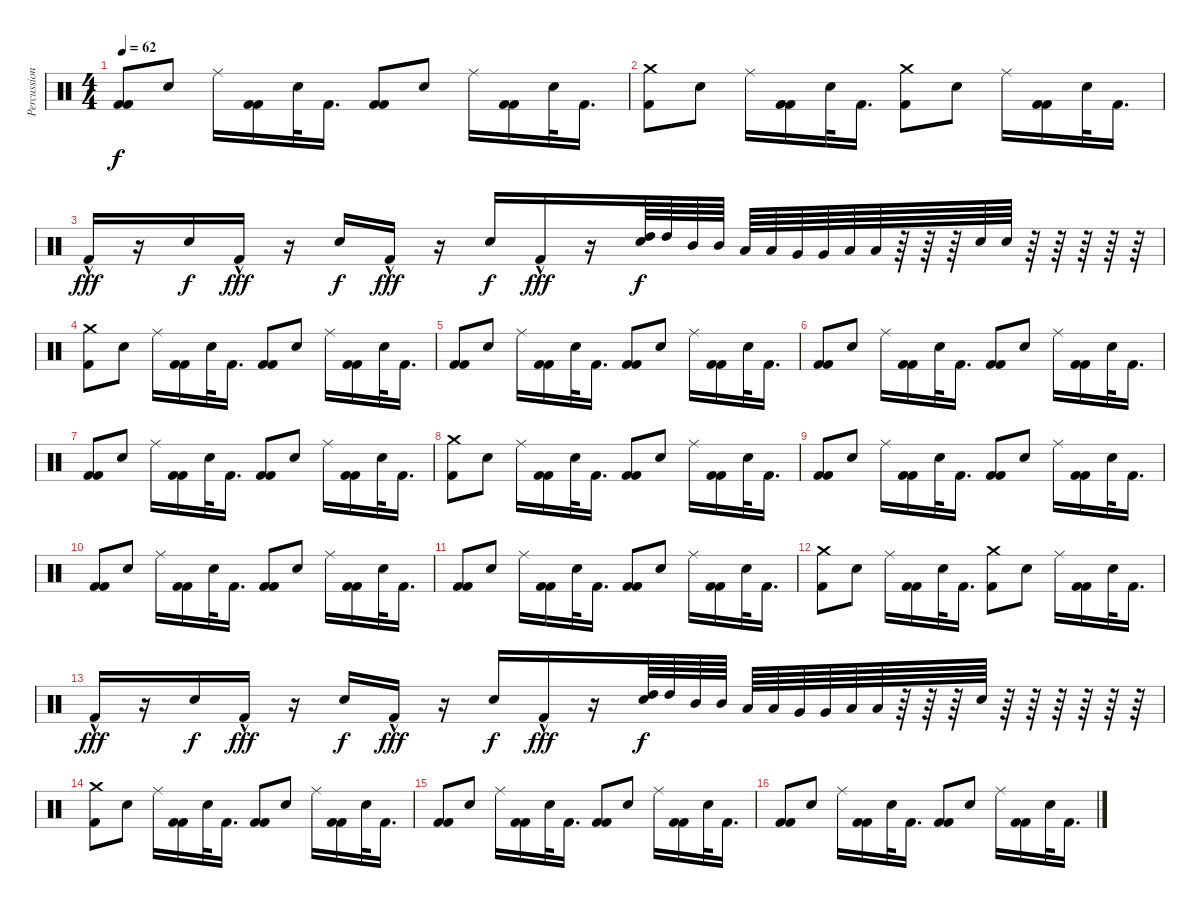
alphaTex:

\track ("Percussion" "Percussion") {instrument percussion}
\staff {score}
\articulation defaults
\ts (4 4)
\tempo 62
\clef neutral
\ks c
("Kick (hit) 2" "Kick (hit) 2").8{dy f} "Electric Snare (hit)".8 "Ride (middle)".16 ("Kick (hit) 2" "Kick (hit) 2").16 "Electric Snare (hit)".32 "Kick (hit) 2".16{d} ("Kick (hit) 2" "Kick (hit) 2").8 "Electric Snare (hit)".8 "Ride (middle)".16 ("Kick (hit) 2" "Kick (hit) 2").16 "Electric Snare (hit)".32 "Kick (hit) 2".16{d} |
("Kick (hit) 2" "Crash medium (hit)").8 "Electric Snare (hit)".8 "Ride (middle)".16 ("Kick (hit) 2" "Kick (hit) 2").16 "Electric Snare (hit)".32 "Kick (hit) 2".16{d} ("Kick (hit) 2" "Crash medium (hit)").8 "Electric Snare (hit)".8 "Ride (middle)".16 ("Kick (hit) 2" "Kick (hit) 2").16 "Electric Snare (hit)".32 "Kick (hit) 2".16{d} |
"Kick (hit) 2"{hac}.16{dy fff} r.16 "Electric Snare (hit)".16{dy f} "Kick (hit) 2"{hac}.16{dy fff} r.16 "Electric Snare (hit)".16{dy f} "Kick (hit) 2"{hac}.16{dy fff} r.16 "Electric Snare (hit)".16{dy f} "Kick (hit) 2"{hac}.16{dy fff} r.16 ("Electric Snare (hit)" "High Tom (hit)").64{dy f} "High Tom (hit)".64 "Mid Tom (hit)".64 "Mid Tom (hit)".64 "Low Tom (hit)".64 "Low Tom (hit)".64 "Very Low Tom (hit)".64 "Very Low Tom (hit)".64 "Low Floor Tom (hit)".64 "Low Floor Tom (hit)".64 r.64 r.64 r.64 "Electric Snare (hit)".64 "Electric Snare (hit)".64 r.64 r.64 r.64 r.64 r.64 |
("Kick (hit) 2" "Crash medium (hit)").8 "Electric Snare (hit)".8 "Ride (middle)".16 ("Kick (hit) 2" "Kick (hit) 2").16 "Electric Snare (hit)".32 "Kick (hit) 2".16{d} ("Kick (hit) 2" "Kick (hit) 2").8 "Electric Snare (hit)".8 "Ride (middle)".16 ("Kick (hit) 2" "Kick (hit) 2").16 "Electric Snare (hit)".32 "Kick (hit) 2".16{d} |
("Kick (hit) 2" "Kick (hit) 2").8 "Electric Snare (hit)".8 "Ride (middle)".16 ("Kick (hit) 2" "Kick (hit) 2").16 "Electric Snare (hit)".32 "Kick (hit) 2".16{d} ("Kick (hit) 2" "Kick (hit) 2").8 "Electric Snare (hit)".8 "Ride (middle)".16 ("Kick (hit) 2" "Kick (hit) 2").16 "Electric Snare (hit)".32 "Kick (hit) 2".16{d} |
("Kick (hit) 2" "Kick (hit) 2").8 "Electric Snare (hit)".8 "Ride (middle)".16 ("Kick (hit) 2" "Kick (hit) 2").16 "Electric Snare (hit)".32 "Kick (hit) 2".16{d} ("Kick (hit) 2" "Kick (hit) 2").8 "Electric Snare (hit)".8 "Ride (middle)".16 ("Kick (hit) 2" "Kick (hit) 2").16 "Electric Snare (hit)".32 "Kick (hit) 2".16{d} |
("Kick (hit) 2" "Kick (hit) 2").8 "Electric Snare (hit)".8 "Ride (middle)".16 ("Kick (hit) 2" "Kick (hit) 2").16 "Electric Snare (hit)".32 "Kick (hit) 2".16{d} ("Kick (hit) 2" "Kick (hit) 2").8 "Electric Snare (hit)".8 "Ride (middle)".16 ("Kick (hit) 2" "Kick (hit) 2").16 "Electric Snare (hit)".32 "Kick (hit) 2".16{d} |
("Kick (hit) 2" "Crash medium (hit)").8 "Electric Snare (hit)".8 "Ride (middle)".16 ("Kick (hit) 2" "Kick (hit) 2").16 "Electric Snare (hit)".32 "Kick (hit) 2".16{d} ("Kick (hit) 2" "Kick (hit) 2").8 "Electric Snare (hit)".8 "Ride (middle)".16 ("Kick (hit) 2" "Kick (hit) 2").16 "Electric Snare (hit)".32 "Kick (hit) 2".16{d} |
("Kick (hit) 2" "Kick (hit) 2").8 "Electric Snare (hit)".8 "Ride (middle)".16 ("Kick (hit) 2" "Kick (hit) 2").16 "Electric Snare (hit)".32 "Kick (hit) 2".16{d} ("Kick (hit) 2" "Kick (hit) 2").8 "Electric Snare (hit)".8 "Ride (middle)".16 ("Kick (hit) 2" "Kick (hit) 2").16 "Electric Snare (hit)".32 "Kick (hit) 2".16{d} |
("Kick (hit) 2" "Kick (hit) 2").8 "Electric Snare (hit)".8 "Ride (middle)".16 ("Kick (hit) 2" "Kick (hit) 2").16 "Electric Snare (hit)".32 "Kick (hit) 2".16{d} ("Kick (hit) 2" "Kick (hit) 2").8 "Electric Snare (hit)".8 "Ride (middle)".16 ("Kick (hit) 2" "Kick (hit) 2").16 "Electric Snare (hit)".32 "Kick (hit) 2".16{d} |
("Kick (hit) 2" "Kick (hit) 2").8 "Electric Snare (hit)".8 "Ride (middle)".16 ("Kick (hit) 2" "Kick (hit) 2").16 "Electric Snare (hit)".32 "Kick (hit) 2".16{d} ("Kick (hit) 2" "Kick (hit) 2").8 "Electric Snare (hit)".8 "Ride (middle)".16 ("Kick (hit) 2" "Kick (hit) 2").16 "Electric Snare (hit)".32 "Kick (hit) 2".16{d} |
("Kick (hit) 2" "Crash medium (hit)").8 "Electric Snare (hit)".8 "Ride (middle)".16 ("Kick (hit) 2" "Kick (hit) 2").16 "Electric Snare (hit)".32 "Kick (hit) 2".16{d} ("Kick (hit) 2" "Crash medium (hit)").8 "Electric Snare (hit)".8 "Ride (middle)".16 ("Kick (hit) 2" "Kick (hit) 2").16 "Electric Snare (hit)".32 "Kick (hit) 2".16{d} |
"Kick (hit) 2"{hac}.16{dy fff} r.16 "Electric Snare (hit)".16{dy f} "Kick (hit) 2"{hac}.16{dy fff} r.16 "Electric Snare (hit)".16{dy f} "Kick (hit) 2"{hac}.16{dy fff} r.16 "Electric Snare (hit)".16{dy f} "Kick (hit) 2"{hac}.16{dy fff} r.16 ("Electric Snare (hit)" "High Tom (hit)").64{dy f} "High Tom (hit)".64 "Mid Tom (hit)".64 "Mid Tom (hit)".64 "Low Tom (hit)".64 "Low Tom (hit)".64 "Very Low Tom (hit)".64 "Very Low Tom (hit)".64 "Low Floor Tom (hit)".64 "Low Floor Tom (hit)".64 r.64 r.64 r.64 "Electric Snare (hit)".64 r.64 r.64 r.64 r.64 r.64 r.64 |
("Kick (hit) 2" "Crash medium (hit)").8 "Electric Snare (hit)".8 "Ride (middle)".16 ("Kick (hit) 2" "Kick (hit) 2").16 "Electric Snare (hit)".32 "Kick (hit) 2".16{d} ("Kick (hit) 2" "Kick (hit) 2").8 "Electric Snare (hit)".8 "Ride (middle)".16 ("Kick (hit) 2" "Kick (hit) 2").16 "Electric Snare (hit)".32 "Kick (hit) 2".16{d} |
("Kick (hit) 2" "Kick (hit) 2").8 "Electric Snare (hit)".8 "Ride (middle)".16 ("Kick (hit) 2" "Kick (hit) 2").16 "Electric Snare (hit)".32 "Kick (hit) 2".16{d} ("Kick (hit) 2" "Kick (hit) 2").8 "Electric Snare (hit)".8 "Ride (middle)".16 ("Kick (hit) 2" "Kick (hit) 2").16 "Electric Snare (hit)".32 "Kick (hit) 2".16{d} |
("Kick (hit) 2" "Kick (hit) 2").8 "Electric Snare (hit)".8 "Ride (middle)".16 ("Kick (hit) 2" "Kick (hit) 2").16 "Electric Snare (hit)".32 "Kick (hit) 2".16{d} ("Kick (hit) 2" "Kick (hit) 2").8 "Electric Snare (hit)".8 "Ride (middle)".16 ("Kick (hit) 2" "Kick (hit) 2").16 "Electric Snare (hit)".32 "Kick (hit) 2".16{d}
